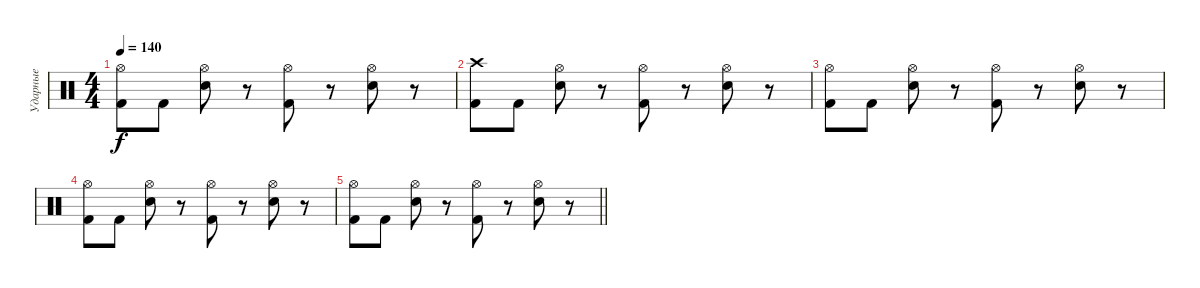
\track ("Ударные" "Ударные") {instrument percussion}
\staff {score}
\articulation defaults
\ts (4 4)
\tempo 140
\clef neutral
\ks c
("Hi-Hat (open)" "Kick (hit) 2").8{dy f} "Kick (hit) 2".8 ("Hi-Hat (open)" "Snare (hit) 2").8 r.8 ("Hi-Hat (open)" "Kick (hit) 2").8 r.8 ("Hi-Hat (open)" "Snare (hit) 2").8 r.8 |
("Crash high (hit)" "Kick (hit) 2").8 "Kick (hit) 2".8 ("Hi-Hat (open)" "Snare (hit) 2").8 r.8 ("Hi-Hat (open)" "Kick (hit) 2").8 r.8 ("Hi-Hat (open)" "Snare (hit) 2").8 r.8 |
("Hi-Hat (open)" "Kick (hit) 2").8 "Kick (hit) 2".8 ("Hi-Hat (open)" "Snare (hit) 2").8 r.8 ("Hi-Hat (open)" "Kick (hit) 2").8 r.8 ("Hi-Hat (open)" "Snare (hit) 2").8 r.8 |
("Hi-Hat (open)" "Kick (hit) 2").8 "Kick (hit) 2".8 ("Hi-Hat (open)" "Snare (hit) 2").8 r.8 ("Hi-Hat (open)" "Kick (hit) 2").8 r.8 ("Hi-Hat (open)" "Snare (hit) 2").8 r.8 |
\barLineRight lightlight
("Hi-Hat (open)" "Kick (hit) 2").8 "Kick (hit) 2".8 ("Hi-Hat (open)" "Snare (hit) 2").8 r.8 ("Hi-Hat (open)" "Kick (hit) 2").8 r.8 ("Hi-Hat (open)" "Snare (hit) 2").8 r.8
